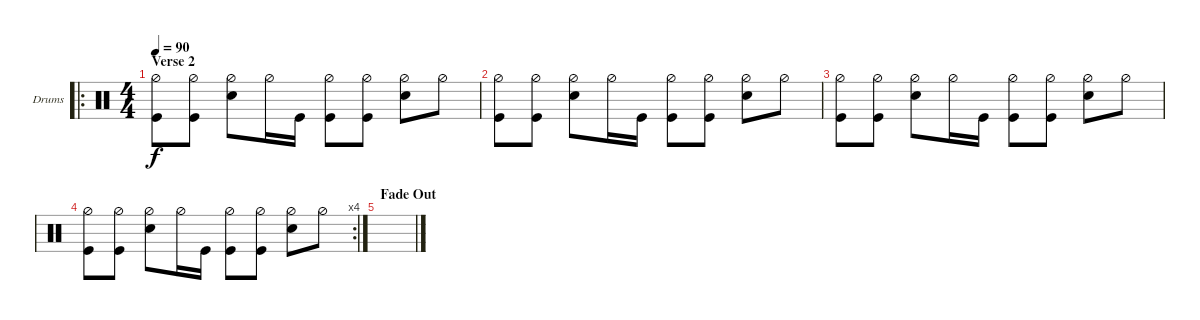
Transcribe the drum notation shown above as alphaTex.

\defaultSystemsLayout 4
\bracketExtendMode groupsimilarinstruments
\firstSystemTrackNameOrientation horizontal
\otherSystemsTrackNameOrientation horizontal
\track ("Drumkit" "Drums") {instrument percussion}
\staff {score}
\articulation defaults
\ro
\ts (4 4)
\section ("" "Verse 2")
\tempo 90
\clef neutral
\ks c
("Hi-Hat (half)" "Kick (hit)").8{dy f} ("Hi-Hat (half)" "Kick (hit)").8 ("Hi-Hat (half)" "Snare (hit) 2").8 "Hi-Hat (half)".16 "Kick (hit)".16 ("Kick (hit)" "Hi-Hat (half)").8 ("Hi-Hat (half)" "Kick (hit)").8 ("Hi-Hat (half)" "Snare (hit) 2").8 "Hi-Hat (half)".8 |
("Hi-Hat (half)" "Kick (hit)").8 ("Hi-Hat (half)" "Kick (hit)").8 ("Hi-Hat (half)" "Snare (hit) 2").8 "Hi-Hat (half)".16 "Kick (hit)".16 ("Kick (hit)" "Hi-Hat (half)").8 ("Hi-Hat (half)" "Kick (hit)").8 ("Hi-Hat (half)" "Snare (hit) 2").8 "Hi-Hat (half)".8 |
("Hi-Hat (half)" "Kick (hit)").8 ("Hi-Hat (half)" "Kick (hit)").8 ("Hi-Hat (half)" "Snare (hit) 2").8 "Hi-Hat (half)".16 "Kick (hit)".16 ("Kick (hit)" "Hi-Hat (half)").8 ("Hi-Hat (half)" "Kick (hit)").8 ("Hi-Hat (half)" "Snare (hit) 2").8 "Hi-Hat (half)".8 |
\rc 4
("Hi-Hat (half)" "Kick (hit)").8 ("Hi-Hat (half)" "Kick (hit)").8 ("Hi-Hat (half)" "Snare (hit) 2").8 "Hi-Hat (half)".16 "Kick (hit)".16 ("Kick (hit)" "Hi-Hat (half)").8 ("Hi-Hat (half)" "Kick (hit)").8 ("Hi-Hat (half)" "Snare (hit) 2").8 "Hi-Hat (half)".8 |
\section ("" "Fade Out")
